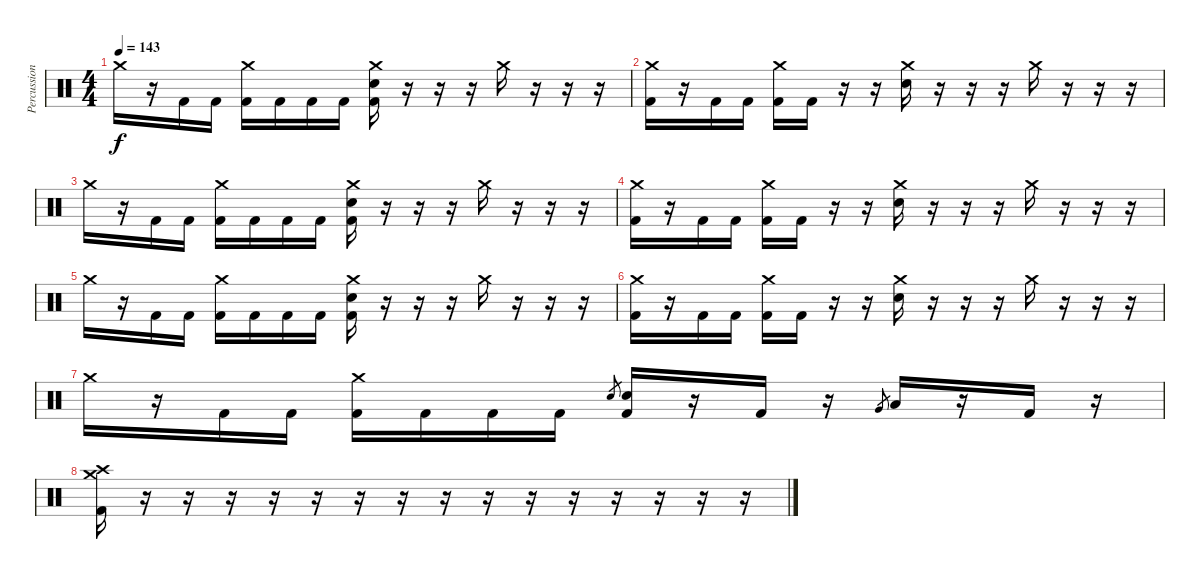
\track ("Percussion" "Percussion") {instrument percussion}
\staff {score}
\articulation defaults
\ts (4 4)
\tempo 143
\clef neutral
\ks c "Crash medium (hit)".16{dy f}
r.16 "Kick (hit) 2".16 "Kick (hit) 2".16 ("Crash medium (hit)" "Kick (hit) 2").16 "Kick (hit) 2".16 "Kick (hit) 2".16 "Kick (hit) 2".16 ("Crash medium (hit)" "Electric Snare (hit)" "Kick (hit) 2").16 r.16 r.16 r.16 "Crash medium (hit)".16 r.16 r.16 r.16 |
("Crash medium (hit)" "Kick (hit) 2").16 r.16 "Kick (hit) 2".16 "Kick (hit) 2".16 ("Crash medium (hit)" "Kick (hit) 2").16 "Kick (hit) 2".16 r.16 r.16 ("Crash medium (hit)" "Electric Snare (hit)").16 r.16 r.16 r.16 "Crash medium (hit)".16 r.16 r.16 r.16 |
"Crash medium (hit)".16 r.16 "Kick (hit) 2".16 "Kick (hit) 2".16 ("Crash medium (hit)" "Kick (hit) 2").16 "Kick (hit) 2".16 "Kick (hit) 2".16 "Kick (hit) 2".16 ("Crash medium (hit)" "Electric Snare (hit)" "Kick (hit) 2").16 r.16 r.16 r.16 "Crash medium (hit)".16 r.16 r.16 r.16 |
("Crash medium (hit)" "Kick (hit) 2").16 r.16 "Kick (hit) 2".16 "Kick (hit) 2".16 ("Crash medium (hit)" "Kick (hit) 2").16 "Kick (hit) 2".16 r.16 r.16 ("Crash medium (hit)" "Electric Snare (hit)").16 r.16 r.16 r.16 "Crash medium (hit)".16 r.16 r.16 r.16 |
"Crash medium (hit)".16 r.16 "Kick (hit) 2".16 "Kick (hit) 2".16 ("Crash medium (hit)" "Kick (hit) 2").16 "Kick (hit) 2".16 "Kick (hit) 2".16 "Kick (hit) 2".16 ("Crash medium (hit)" "Electric Snare (hit)" "Kick (hit) 2").16 r.16 r.16 r.16 "Crash medium (hit)".16 r.16 r.16 r.16 |
("Crash medium (hit)" "Kick (hit) 2").16 r.16 "Kick (hit) 2".16 "Kick (hit) 2".16 ("Crash medium (hit)" "Kick (hit) 2").16 "Kick (hit) 2".16 r.16 r.16 ("Crash medium (hit)" "Electric Snare (hit)").16 r.16 r.16 r.16 "Crash medium (hit)".16 r.16 r.16 r.16 |
"Crash medium (hit)".16 r.16 "Kick (hit) 2".16 "Kick (hit) 2".16 ("Crash medium (hit)" "Kick (hit) 2").16 "Kick (hit) 2".16 "Kick (hit) 2".16 "Kick (hit) 2".16 "Electric Snare (hit)".8{gr} ("Electric Snare (hit)" "Kick (hit) 2").16 r.16 "Kick (hit) 2".16 r.16 "Very Low Tom (hit)".8{gr} "Low Tom (hit)".16 r.16 "Kick (hit) 2".16 r.16 |
("Crash medium (hit)" "Crash high (hit)" "Kick (hit) 2").16 r.16 r.16 r.16 r.16 r.16 r.16 r.16 r.16 r.16 r.16 r.16 r.16 r.16 r.16 r.16
